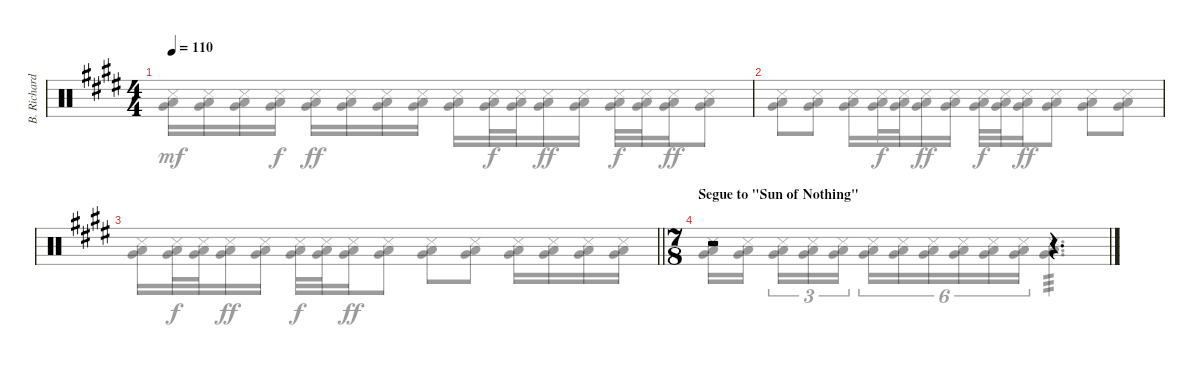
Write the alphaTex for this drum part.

\track ("B. Richardson Percussion" "B. Richard") {instrument percussion}
\staff {score}
\articulation defaults
\voice
\ts (4 4)
\tempo 110
\clef neutral
\ks c#minor
|
|
\barLineRight lightlight
|
\ts (7 8)
\section ("" "Segue to \"Sun of Nothing\"")
r.2 r.4{d}
\voice
\clef neutral
\ottava regular
\simile none
\ks c#minor
("Snare (side stick) 3" "Very Low Tom (hit)" "Low Floor Tom (hit)").16{dy mf} ("Snare (side stick) 3" "Very Low Tom (hit)" "Low Floor Tom (hit)").16 ("Snare (side stick) 3" "Very Low Tom (hit)" "Low Floor Tom (hit)").16 ("Snare (side stick) 3" "Very Low Tom (hit)" "Low Floor Tom (hit)").16{dy f} ("Snare (side stick) 3" "Very Low Tom (hit)" "Low Floor Tom (hit)").16{dy ff} ("Snare (side stick) 3" "Very Low Tom (hit)" "Low Floor Tom (hit)").16 ("Snare (side stick) 3" "Very Low Tom (hit)" "Low Floor Tom (hit)").16 ("Snare (side stick) 3" "Very Low Tom (hit)" "Low Floor Tom (hit)").16 ("Snare (side stick) 3" "Very Low Tom (hit)" "Low Floor Tom (hit)").16 ("Snare (side stick) 3" "Very Low Tom (hit)" "Low Floor Tom (hit)").32{dy f} ("Snare (side stick) 3" "Very Low Tom (hit)" "Low Floor Tom (hit)").32 ("Snare (side stick) 3" "Very Low Tom (hit)" "Low Floor Tom (hit)").16{dy ff} ("Snare (side stick) 3" "Very Low Tom (hit)" "Low Floor Tom (hit)").16 ("Snare (side stick) 3" "Very Low Tom (hit)" "Low Floor Tom (hit)").32{dy f} ("Snare (side stick) 3" "Very Low Tom (hit)" "Low Floor Tom (hit)").32 ("Snare (side stick) 3" "Very Low Tom (hit)" "Low Floor Tom (hit)").16{dy ff} ("Snare (side stick) 3" "Very Low Tom (hit)" "Low Floor Tom (hit)").8 |
("Snare (side stick) 3" "Very Low Tom (hit)" "Low Floor Tom (hit)").8 ("Snare (side stick) 3" "Very Low Tom (hit)" "Low Floor Tom (hit)").8 ("Snare (side stick) 3" "Very Low Tom (hit)" "Low Floor Tom (hit)").16 ("Snare (side stick) 3" "Very Low Tom (hit)" "Low Floor Tom (hit)").32{dy f} ("Snare (side stick) 3" "Very Low Tom (hit)" "Low Floor Tom (hit)").32 ("Snare (side stick) 3" "Very Low Tom (hit)" "Low Floor Tom (hit)").16{dy ff} ("Snare (side stick) 3" "Very Low Tom (hit)" "Low Floor Tom (hit)").16 ("Snare (side stick) 3" "Very Low Tom (hit)" "Low Floor Tom (hit)").32{dy f} ("Snare (side stick) 3" "Very Low Tom (hit)" "Low Floor Tom (hit)").32 ("Snare (side stick) 3" "Very Low Tom (hit)" "Low Floor Tom (hit)").16{dy ff} ("Snare (side stick) 3" "Very Low Tom (hit)" "Low Floor Tom (hit)").8 ("Snare (side stick) 3" "Very Low Tom (hit)" "Low Floor Tom (hit)").8 ("Snare (side stick) 3" "Very Low Tom (hit)" "Low Floor Tom (hit)").8 |
\barLineRight lightlight
("Snare (side stick) 3" "Very Low Tom (hit)" "Low Floor Tom (hit)").16 ("Snare (side stick) 3" "Very Low Tom (hit)" "Low Floor Tom (hit)").32{dy f} ("Snare (side stick) 3" "Very Low Tom (hit)" "Low Floor Tom (hit)").32 ("Snare (side stick) 3" "Very Low Tom (hit)" "Low Floor Tom (hit)").16{dy ff} ("Snare (side stick) 3" "Very Low Tom (hit)" "Low Floor Tom (hit)").16 ("Snare (side stick) 3" "Very Low Tom (hit)" "Low Floor Tom (hit)").32{dy f} ("Snare (side stick) 3" "Very Low Tom (hit)" "Low Floor Tom (hit)").32 ("Snare (side stick) 3" "Very Low Tom (hit)" "Low Floor Tom (hit)").16{dy ff} ("Snare (side stick) 3" "Very Low Tom (hit)" "Low Floor Tom (hit)").8 ("Snare (side stick) 3" "Very Low Tom (hit)" "Low Floor Tom (hit)").8 ("Snare (side stick) 3" "Very Low Tom (hit)" "Low Floor Tom (hit)").8 ("Snare (side stick) 3" "Very Low Tom (hit)" "Low Floor Tom (hit)").16 ("Snare (side stick) 3" "Very Low Tom (hit)" "Low Floor Tom (hit)").16 ("Snare (side stick) 3" "Very Low Tom (hit)" "Low Floor Tom (hit)").16 ("Snare (side stick) 3" "Very Low Tom (hit)" "Low Floor Tom (hit)").16 |
("Snare (side stick) 3" "Very Low Tom (hit)" "Low Floor Tom (hit)").16 ("Snare (side stick) 3" "Very Low Tom (hit)" "Low Floor Tom (hit)").16 ("Snare (side stick) 3" "Very Low Tom (hit)" "Low Floor Tom (hit)").16{tu (3 2)} ("Snare (side stick) 3" "Very Low Tom (hit)" "Low Floor Tom (hit)").16{tu (3 2)} ("Snare (side stick) 3" "Very Low Tom (hit)" "Low Floor Tom (hit)").16{tu (3 2)} ("Snare (side stick) 3" "Very Low Tom (hit)" "Low Floor Tom (hit)").16{tu (6 4)} ("Snare (side stick) 3" "Very Low Tom (hit)" "Low Floor Tom (hit)").16{tu (6 4)} ("Snare (side stick) 3" "Very Low Tom (hit)" "Low Floor Tom (hit)").16{tu (6 4)} ("Snare (side stick) 3" "Very Low Tom (hit)" "Low Floor Tom (hit)").16{tu (6 4)} ("Snare (side stick) 3" "Very Low Tom (hit)" "Low Floor Tom (hit)").16{tu (6 4)} ("Snare (side stick) 3" "Very Low Tom (hit)" "Low Floor Tom (hit)").16{tu (6 4)} ("Snare (side stick) 3" "Very Low Tom (hit)" "Low Floor Tom (hit)").4{d tp 3}
